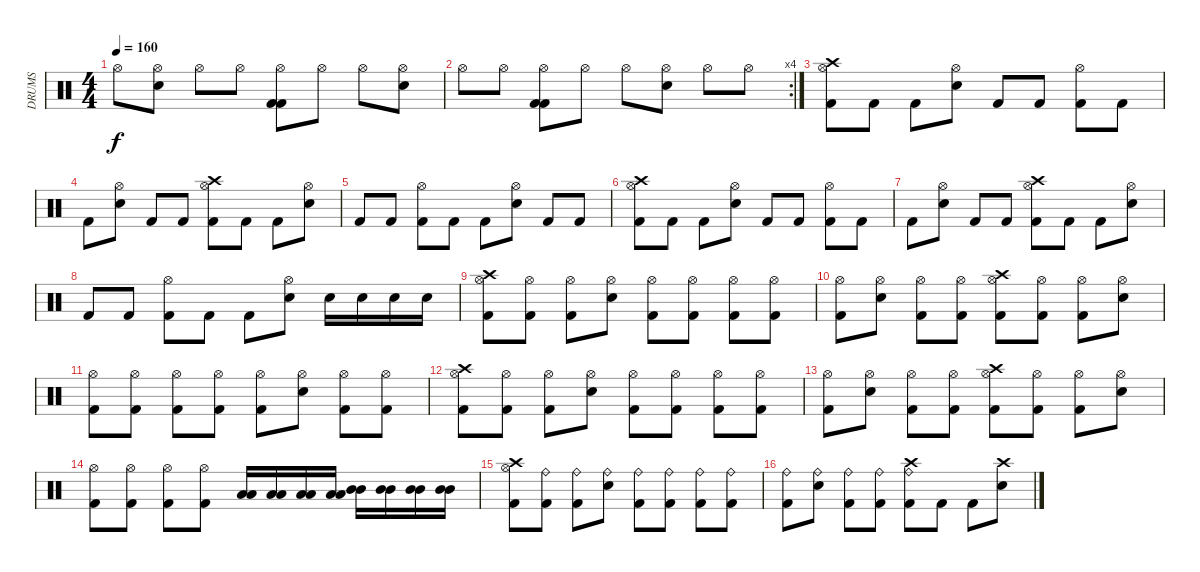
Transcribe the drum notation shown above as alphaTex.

\track ("DRUMS" "DRUMS") {instrument percussion}
\staff {score}
\articulation defaults
\ts (4 4)
\tempo 160
\clef neutral
\ks c "Hi-Hat (open)".8{dy f}
("Snare (hit) 2" "Hi-Hat (open)").8 "Hi-Hat (open)".8 "Hi-Hat (open)".8 ("Kick (hit) 2" "Kick (hit) 2" "Hi-Hat (open)").8 "Hi-Hat (open)".8 "Hi-Hat (open)".8 ("Snare (hit) 2" "Hi-Hat (open)").8 |
\rc 4 "Hi-Hat (open)".8 "Hi-Hat (open)".8
("Kick (hit) 2" "Kick (hit) 2" "Hi-Hat (open)").8 "Hi-Hat (open)".8 "Hi-Hat (open)".8 ("Snare (hit) 2" "Hi-Hat (open)").8 "Hi-Hat (open)".8 "Hi-Hat (open)".8 |
("Crash high (hit)" "Kick (hit) 2" "Hi-Hat (open)").8 "Kick (hit) 2".8 "Kick (hit) 2".8 ("Hi-Hat (open)" "Snare (hit) 2").8 "Kick (hit) 2".8 "Kick (hit) 2".8 ("Hi-Hat (open)" "Kick (hit) 2").8 "Kick (hit) 2".8 |
"Kick (hit) 2".8 ("Hi-Hat (open)" "Snare (hit) 2").8 "Kick (hit) 2".8 "Kick (hit) 2".8 ("Crash high (hit)" "Hi-Hat (open)" "Kick (hit) 2").8 "Kick (hit) 2".8 "Kick (hit) 2".8 ("Hi-Hat (open)" "Snare (hit) 2").8 |
"Kick (hit) 2".8 "Kick (hit) 2".8 ("Hi-Hat (open)" "Kick (hit) 2").8 "Kick (hit) 2".8 "Kick (hit) 2".8 ("Hi-Hat (open)" "Snare (hit) 2").8 "Kick (hit) 2".8 "Kick (hit) 2".8 |
("Crash high (hit)" "Kick (hit) 2" "Hi-Hat (open)").8 "Kick (hit) 2".8 "Kick (hit) 2".8 ("Hi-Hat (open)" "Snare (hit) 2").8 "Kick (hit) 2".8 "Kick (hit) 2".8 ("Hi-Hat (open)" "Kick (hit) 2").8 "Kick (hit) 2".8 |
"Kick (hit) 2".8 ("Hi-Hat (open)" "Snare (hit) 2").8 "Kick (hit) 2".8 "Kick (hit) 2".8 ("Crash high (hit)" "Hi-Hat (open)" "Kick (hit) 2").8 "Kick (hit) 2".8 "Kick (hit) 2".8 ("Hi-Hat (open)" "Snare (hit) 2").8 |
"Kick (hit) 2".8 "Kick (hit) 2".8 ("Hi-Hat (open)" "Kick (hit) 2").8 "Kick (hit) 2".8 "Kick (hit) 2".8 ("Hi-Hat (open)" "Snare (hit) 2").8 "Snare (hit) 2".16 "Snare (hit) 2".16 "Snare (hit) 2".16 "Snare (hit) 2".16 |
("Crash high (hit)" "Kick (hit) 2" "Hi-Hat (open)").8 ("Hi-Hat (open)" "Kick (hit) 2").8 ("Hi-Hat (open)" "Kick (hit) 2").8 ("Hi-Hat (open)" "Snare (hit) 2").8 ("Hi-Hat (open)" "Kick (hit) 2").8 ("Hi-Hat (open)" "Kick (hit) 2").8 ("Hi-Hat (open)" "Kick (hit) 2").8 ("Hi-Hat (open)" "Kick (hit) 2").8 |
("Hi-Hat (open)" "Kick (hit) 2").8 ("Hi-Hat (open)" "Snare (hit) 2").8 ("Hi-Hat (open)" "Kick (hit) 2").8 ("Hi-Hat (open)" "Kick (hit) 2").8 ("Crash high (hit)" "Hi-Hat (open)" "Kick (hit) 2").8 ("Hi-Hat (open)" "Kick (hit) 2").8 ("Hi-Hat (open)" "Kick (hit) 2").8 ("Hi-Hat (open)" "Snare (hit) 2").8 |
("Hi-Hat (open)" "Kick (hit) 2").8 ("Hi-Hat (open)" "Kick (hit) 2").8 ("Hi-Hat (open)" "Kick (hit) 2").8 ("Hi-Hat (open)" "Kick (hit) 2").8 ("Hi-Hat (open)" "Kick (hit) 2").8 ("Hi-Hat (open)" "Snare (hit) 2").8 ("Hi-Hat (open)" "Kick (hit) 2").8 ("Hi-Hat (open)" "Kick (hit) 2").8 |
("Crash high (hit)" "Kick (hit) 2" "Hi-Hat (open)").8 ("Hi-Hat (open)" "Kick (hit) 2").8 ("Hi-Hat (open)" "Kick (hit) 2").8 ("Hi-Hat (open)" "Snare (hit) 2").8 ("Hi-Hat (open)" "Kick (hit) 2").8 ("Hi-Hat (open)" "Kick (hit) 2").8 ("Hi-Hat (open)" "Kick (hit) 2").8 ("Hi-Hat (open)" "Kick (hit) 2").8 |
("Hi-Hat (open)" "Kick (hit) 2").8 ("Hi-Hat (open)" "Snare (hit) 2").8 ("Hi-Hat (open)" "Kick (hit) 2").8 ("Hi-Hat (open)" "Kick (hit) 2").8 ("Crash high (hit)" "Hi-Hat (open)" "Kick (hit) 2").8 ("Hi-Hat (open)" "Kick (hit) 2").8 ("Hi-Hat (open)" "Kick (hit) 2").8 ("Hi-Hat (open)" "Snare (hit) 2").8 |
("Hi-Hat (open)" "Kick (hit) 2").8 ("Hi-Hat (open)" "Kick (hit) 2").8 ("Hi-Hat (open)" "Kick (hit) 2").8 ("Hi-Hat (open)" "Kick (hit) 2").8 ("Low Tom (hit)" "Low Tom (hit)").16 ("Low Tom (hit)" "Low Tom (hit)").16 ("Low Tom (hit)" "Low Tom (hit)").16 ("Low Tom (hit)" "Low Tom (hit)").16 ("Mid Tom (hit)" "Mid Tom (hit)").16 ("Mid Tom (hit)" "Mid Tom (hit)").16 ("Mid Tom (hit)" "Mid Tom (hit)").16 ("Mid Tom (hit)" "Mid Tom (hit)").16 |
("Crash high (hit)" "Kick (hit) 2" "Hi-Hat (open)").8 ("Ride (bell)" "Kick (hit) 2").8 ("Ride (bell)" "Kick (hit) 2").8 ("Ride (bell)" "Snare (hit) 2").8 ("Ride (bell)" "Kick (hit) 2").8 ("Ride (bell)" "Kick (hit) 2").8 ("Ride (bell)" "Kick (hit) 2").8 ("Ride (bell)" "Kick (hit) 2").8 |
("Ride (bell)" "Kick (hit) 2").8 ("Ride (bell)" "Snare (hit) 2").8 ("Ride (bell)" "Kick (hit) 2").8 ("Ride (bell)" "Kick (hit) 2").8 ("Crash high (hit)" "Ride (bell)" "Kick (hit) 2").8 "Kick (hit) 2".8 "Kick (hit) 2".8 ("Crash high (hit)" "Snare (hit) 2").8
